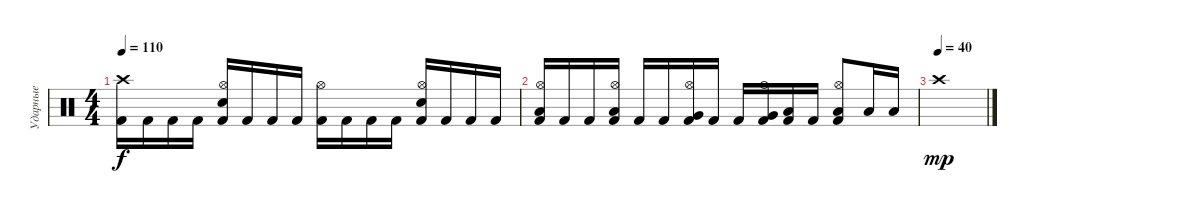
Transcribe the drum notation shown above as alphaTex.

\track ("Ударные" "Ударные") {instrument percussion}
\staff {score}
\articulation defaults
\ts (4 4)
\tempo 110
\clef neutral
\ks c
("Kick (hit) 2" "Crash high (hit)").16{dy f} "Kick (hit) 2".16 "Kick (hit) 2".16 "Kick (hit) 2".16 ("Kick (hit) 2" "Hi-Hat (open)" "Snare (hit) 2").16 "Kick (hit) 2".16 "Kick (hit) 2".16 "Kick (hit) 2".16 ("Kick (hit) 2" "Hi-Hat (open)").16 "Kick (hit) 2".16 "Kick (hit) 2".16 "Kick (hit) 2".16 ("Kick (hit) 2" "Hi-Hat (open)" "Snare (hit) 2").16 "Kick (hit) 2".16 "Kick (hit) 2".16 "Kick (hit) 2".16 |
("Kick (hit) 2" "Low Floor Tom (hit)" "Hi-Hat (open)").16 "Kick (hit) 2".16 "Kick (hit) 2".16 ("Kick (hit) 2" "Low Floor Tom (hit)" "Hi-Hat (open)").16 "Kick (hit) 2".16 "Kick (hit) 2".16 ("Kick (hit) 2" "Very Low Tom (hit)" "Hi-Hat (open)").16 "Kick (hit) 2".16 "Kick (hit) 2".16 ("Kick (hit) 2" "Very Low Tom (hit)" "Hi-Hat (open)").16 ("Kick (hit) 2" "Low Tom (hit)").16 "Kick (hit) 2".16 ("Kick (hit) 2" "Low Tom (hit)" "Hi-Hat (open)").8 "Low Floor Tom (hit)".16 "Low Floor Tom (hit)".16 |
\tempo (40)
"Crash high (hit)".1{dy mp}
